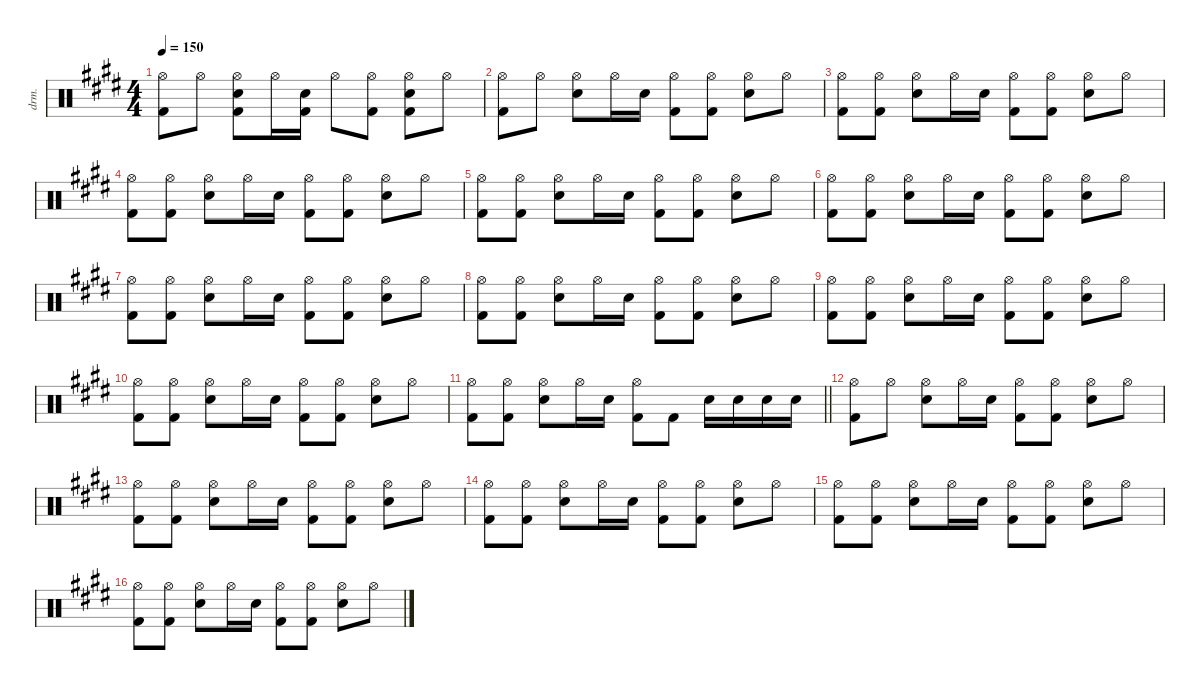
\defaultSystemsLayout 4
\hideDynamics
\bracketExtendMode nobrackets
\track (" (Drums)" "drm.") {instrument percussion}
\staff {score}
\articulation defaults
\ts (4 4)
\tempo 150
\clef neutral
\ks c#minor
("Hi-Hat (open)"{acc forcenatural} "Kick (hit) 2"{acc forcenatural}).8{dy f} "Hi-Hat (open)"{acc forcenatural}.8 ("Hi-Hat (open)"{acc forcenatural} "Snare (hit) 2"{acc forcenatural} "Kick (hit) 2"{acc forcenatural}).8 "Hi-Hat (open)"{acc forcenatural}.16 ("Snare (hit) 2"{acc forcenatural} "Kick (hit) 2"{acc forcenatural}).16{dy mf} "Hi-Hat (open)"{acc forcenatural}.8{dy f} ("Hi-Hat (open)"{acc forcenatural} "Kick (hit) 2"{acc forcenatural}).8 ("Hi-Hat (open)"{acc forcenatural} "Snare (hit) 2"{acc forcenatural} "Kick (hit) 2"{acc forcenatural}).8 "Hi-Hat (open)"{acc forcenatural}.8 |
("Hi-Hat (open)"{acc forcenatural} "Kick (hit) 2"{acc forcenatural}).8 "Hi-Hat (open)"{acc forcenatural}.8 ("Hi-Hat (open)"{acc forcenatural} "Snare (hit) 2"{acc forcenatural}).8 "Hi-Hat (open)"{acc forcenatural}.16 "Snare (hit) 2"{acc forcenatural}.16{dy mf} ("Hi-Hat (open)"{acc forcenatural} "Kick (hit) 2"{acc forcenatural}).8{dy f} ("Hi-Hat (open)"{acc forcenatural} "Kick (hit) 2"{acc forcenatural}).8 ("Hi-Hat (open)"{acc forcenatural} "Snare (hit) 2"{acc forcenatural}).8 "Hi-Hat (open)"{acc forcenatural}.8 |
("Hi-Hat (open)"{acc forcenatural} "Kick (hit) 2"{acc forcenatural}).8 ("Hi-Hat (open)"{acc forcenatural} "Kick (hit) 2"{acc forcenatural}).8 ("Hi-Hat (open)"{acc forcenatural} "Snare (hit) 2"{acc forcenatural}).8 "Hi-Hat (open)"{acc forcenatural}.16 "Snare (hit) 2"{acc forcenatural}.16{dy mf} ("Hi-Hat (open)"{acc forcenatural} "Kick (hit) 2"{acc forcenatural}).8{dy f} ("Hi-Hat (open)"{acc forcenatural} "Kick (hit) 2"{acc forcenatural}).8 ("Hi-Hat (open)"{acc forcenatural} "Snare (hit) 2"{acc forcenatural}).8 "Hi-Hat (open)"{acc forcenatural}.8 |
("Hi-Hat (open)"{acc forcenatural} "Kick (hit) 2"{acc forcenatural}).8 ("Hi-Hat (open)"{acc forcenatural} "Kick (hit) 2"{acc forcenatural}).8 ("Hi-Hat (open)"{acc forcenatural} "Snare (hit) 2"{acc forcenatural}).8 "Hi-Hat (open)"{acc forcenatural}.16 "Snare (hit) 2"{acc forcenatural}.16{dy mf} ("Hi-Hat (open)"{acc forcenatural} "Kick (hit) 2"{acc forcenatural}).8{dy f} ("Hi-Hat (open)"{acc forcenatural} "Kick (hit) 2"{acc forcenatural}).8 ("Hi-Hat (open)"{acc forcenatural} "Snare (hit) 2"{acc forcenatural}).8 "Hi-Hat (open)"{acc forcenatural}.8 |
("Hi-Hat (open)"{acc forcenatural} "Kick (hit) 2"{acc forcenatural}).8 ("Hi-Hat (open)"{acc forcenatural} "Kick (hit) 2"{acc forcenatural}).8 ("Hi-Hat (open)"{acc forcenatural} "Snare (hit) 2"{acc forcenatural}).8 "Hi-Hat (open)"{acc forcenatural}.16 "Snare (hit) 2"{acc forcenatural}.16{dy mf} ("Hi-Hat (open)"{acc forcenatural} "Kick (hit) 2"{acc forcenatural}).8{dy f} ("Hi-Hat (open)"{acc forcenatural} "Kick (hit) 2"{acc forcenatural}).8 ("Hi-Hat (open)"{acc forcenatural} "Snare (hit) 2"{acc forcenatural}).8 "Hi-Hat (open)"{acc forcenatural}.8 |
("Hi-Hat (open)"{acc forcenatural} "Kick (hit) 2"{acc forcenatural}).8 ("Hi-Hat (open)"{acc forcenatural} "Kick (hit) 2"{acc forcenatural}).8 ("Hi-Hat (open)"{acc forcenatural} "Snare (hit) 2"{acc forcenatural}).8 "Hi-Hat (open)"{acc forcenatural}.16 "Snare (hit) 2"{acc forcenatural}.16{dy mf} ("Hi-Hat (open)"{acc forcenatural} "Kick (hit) 2"{acc forcenatural}).8{dy f} ("Hi-Hat (open)"{acc forcenatural} "Kick (hit) 2"{acc forcenatural}).8 ("Hi-Hat (open)"{acc forcenatural} "Snare (hit) 2"{acc forcenatural}).8 "Hi-Hat (open)"{acc forcenatural}.8 |
("Hi-Hat (open)"{acc forcenatural} "Kick (hit) 2"{acc forcenatural}).8 ("Hi-Hat (open)"{acc forcenatural} "Kick (hit) 2"{acc forcenatural}).8 ("Hi-Hat (open)"{acc forcenatural} "Snare (hit) 2"{acc forcenatural}).8 "Hi-Hat (open)"{acc forcenatural}.16 "Snare (hit) 2"{acc forcenatural}.16{dy mf} ("Hi-Hat (open)"{acc forcenatural} "Kick (hit) 2"{acc forcenatural}).8{dy f} ("Hi-Hat (open)"{acc forcenatural} "Kick (hit) 2"{acc forcenatural}).8 ("Hi-Hat (open)"{acc forcenatural} "Snare (hit) 2"{acc forcenatural}).8 "Hi-Hat (open)"{acc forcenatural}.8 |
("Hi-Hat (open)"{acc forcenatural} "Kick (hit) 2"{acc forcenatural}).8 ("Hi-Hat (open)"{acc forcenatural} "Kick (hit) 2"{acc forcenatural}).8 ("Hi-Hat (open)"{acc forcenatural} "Snare (hit) 2"{acc forcenatural}).8 "Hi-Hat (open)"{acc forcenatural}.16 "Snare (hit) 2"{acc forcenatural}.16{dy mf} ("Hi-Hat (open)"{acc forcenatural} "Kick (hit) 2"{acc forcenatural}).8{dy f} ("Hi-Hat (open)"{acc forcenatural} "Kick (hit) 2"{acc forcenatural}).8 ("Hi-Hat (open)"{acc forcenatural} "Snare (hit) 2"{acc forcenatural}).8 "Hi-Hat (open)"{acc forcenatural}.8 |
("Hi-Hat (open)"{acc forcenatural} "Kick (hit) 2"{acc forcenatural}).8 ("Hi-Hat (open)"{acc forcenatural} "Kick (hit) 2"{acc forcenatural}).8 ("Hi-Hat (open)"{acc forcenatural} "Snare (hit) 2"{acc forcenatural}).8 "Hi-Hat (open)"{acc forcenatural}.16 "Snare (hit) 2"{acc forcenatural}.16{dy mf} ("Hi-Hat (open)"{acc forcenatural} "Kick (hit) 2"{acc forcenatural}).8{dy f} ("Hi-Hat (open)"{acc forcenatural} "Kick (hit) 2"{acc forcenatural}).8 ("Hi-Hat (open)"{acc forcenatural} "Snare (hit) 2"{acc forcenatural}).8 "Hi-Hat (open)"{acc forcenatural}.8 |
("Hi-Hat (open)"{acc forcenatural} "Kick (hit) 2"{acc forcenatural}).8 ("Hi-Hat (open)"{acc forcenatural} "Kick (hit) 2"{acc forcenatural}).8 ("Hi-Hat (open)"{acc forcenatural} "Snare (hit) 2"{acc forcenatural}).8 "Hi-Hat (open)"{acc forcenatural}.16 "Snare (hit) 2"{acc forcenatural}.16{dy mf} ("Hi-Hat (open)"{acc forcenatural} "Kick (hit) 2"{acc forcenatural}).8{dy f} ("Hi-Hat (open)"{acc forcenatural} "Kick (hit) 2"{acc forcenatural}).8 ("Hi-Hat (open)"{acc forcenatural} "Snare (hit) 2"{acc forcenatural}).8 "Hi-Hat (open)"{acc forcenatural}.8 |
\barLineRight lightlight
("Hi-Hat (open)"{acc forcenatural} "Kick (hit) 2"{acc forcenatural}).8 ("Hi-Hat (open)"{acc forcenatural} "Kick (hit) 2"{acc forcenatural}).8 ("Hi-Hat (open)"{acc forcenatural} "Snare (hit) 2"{acc forcenatural}).8 "Hi-Hat (open)"{acc forcenatural}.16 "Snare (hit) 2"{acc forcenatural}.16{dy mf} ("Hi-Hat (open)"{acc forcenatural} "Kick (hit) 2"{acc forcenatural}).8{dy f} "Kick (hit) 2"{acc forcenatural}.8 "Snare (hit) 2"{acc forcenatural}.16 "Snare (hit) 2"{acc forcenatural}.16 "Snare (hit) 2"{acc forcenatural}.16 "Snare (hit) 2"{acc forcenatural}.16 |
("Hi-Hat (open)"{acc forcenatural} "Kick (hit) 2"{acc forcenatural}).8 "Hi-Hat (open)"{acc forcenatural}.8 ("Hi-Hat (open)"{acc forcenatural} "Snare (hit) 2"{acc forcenatural}).8 "Hi-Hat (open)"{acc forcenatural}.16 "Snare (hit) 2"{acc forcenatural}.16{dy mf} ("Hi-Hat (open)"{acc forcenatural} "Kick (hit) 2"{acc forcenatural}).8{dy f} ("Hi-Hat (open)"{acc forcenatural} "Kick (hit) 2"{acc forcenatural}).8 ("Hi-Hat (open)"{acc forcenatural} "Snare (hit) 2"{acc forcenatural}).8 "Hi-Hat (open)"{acc forcenatural}.8 |
("Hi-Hat (open)"{acc forcenatural} "Kick (hit) 2"{acc forcenatural}).8 ("Hi-Hat (open)"{acc forcenatural} "Kick (hit) 2"{acc forcenatural}).8 ("Hi-Hat (open)"{acc forcenatural} "Snare (hit) 2"{acc forcenatural}).8 "Hi-Hat (open)"{acc forcenatural}.16 "Snare (hit) 2"{acc forcenatural}.16{dy mf} ("Hi-Hat (open)"{acc forcenatural} "Kick (hit) 2"{acc forcenatural}).8{dy f} ("Hi-Hat (open)"{acc forcenatural} "Kick (hit) 2"{acc forcenatural}).8 ("Hi-Hat (open)"{acc forcenatural} "Snare (hit) 2"{acc forcenatural}).8 "Hi-Hat (open)"{acc forcenatural}.8 |
("Hi-Hat (open)"{acc forcenatural} "Kick (hit) 2"{acc forcenatural}).8 ("Hi-Hat (open)"{acc forcenatural} "Kick (hit) 2"{acc forcenatural}).8 ("Hi-Hat (open)"{acc forcenatural} "Snare (hit) 2"{acc forcenatural}).8 "Hi-Hat (open)"{acc forcenatural}.16 "Snare (hit) 2"{acc forcenatural}.16{dy mf} ("Hi-Hat (open)"{acc forcenatural} "Kick (hit) 2"{acc forcenatural}).8{dy f} ("Hi-Hat (open)"{acc forcenatural} "Kick (hit) 2"{acc forcenatural}).8 ("Hi-Hat (open)"{acc forcenatural} "Snare (hit) 2"{acc forcenatural}).8 "Hi-Hat (open)"{acc forcenatural}.8 |
("Hi-Hat (open)"{acc forcenatural} "Kick (hit) 2"{acc forcenatural}).8 ("Hi-Hat (open)"{acc forcenatural} "Kick (hit) 2"{acc forcenatural}).8 ("Hi-Hat (open)"{acc forcenatural} "Snare (hit) 2"{acc forcenatural}).8 "Hi-Hat (open)"{acc forcenatural}.16 "Snare (hit) 2"{acc forcenatural}.16{dy mf} ("Hi-Hat (open)"{acc forcenatural} "Kick (hit) 2"{acc forcenatural}).8{dy f} ("Hi-Hat (open)"{acc forcenatural} "Kick (hit) 2"{acc forcenatural}).8 ("Hi-Hat (open)"{acc forcenatural} "Snare (hit) 2"{acc forcenatural}).8 "Hi-Hat (open)"{acc forcenatural}.8 |
("Hi-Hat (open)"{acc forcenatural} "Kick (hit) 2"{acc forcenatural}).8 ("Hi-Hat (open)"{acc forcenatural} "Kick (hit) 2"{acc forcenatural}).8 ("Hi-Hat (open)"{acc forcenatural} "Snare (hit) 2"{acc forcenatural}).8 "Hi-Hat (open)"{acc forcenatural}.16 "Snare (hit) 2"{acc forcenatural}.16{dy mf} ("Hi-Hat (open)"{acc forcenatural} "Kick (hit) 2"{acc forcenatural}).8{dy f} ("Hi-Hat (open)"{acc forcenatural} "Kick (hit) 2"{acc forcenatural}).8 ("Hi-Hat (open)"{acc forcenatural} "Snare (hit) 2"{acc forcenatural}).8 "Hi-Hat (open)"{acc forcenatural}.8
